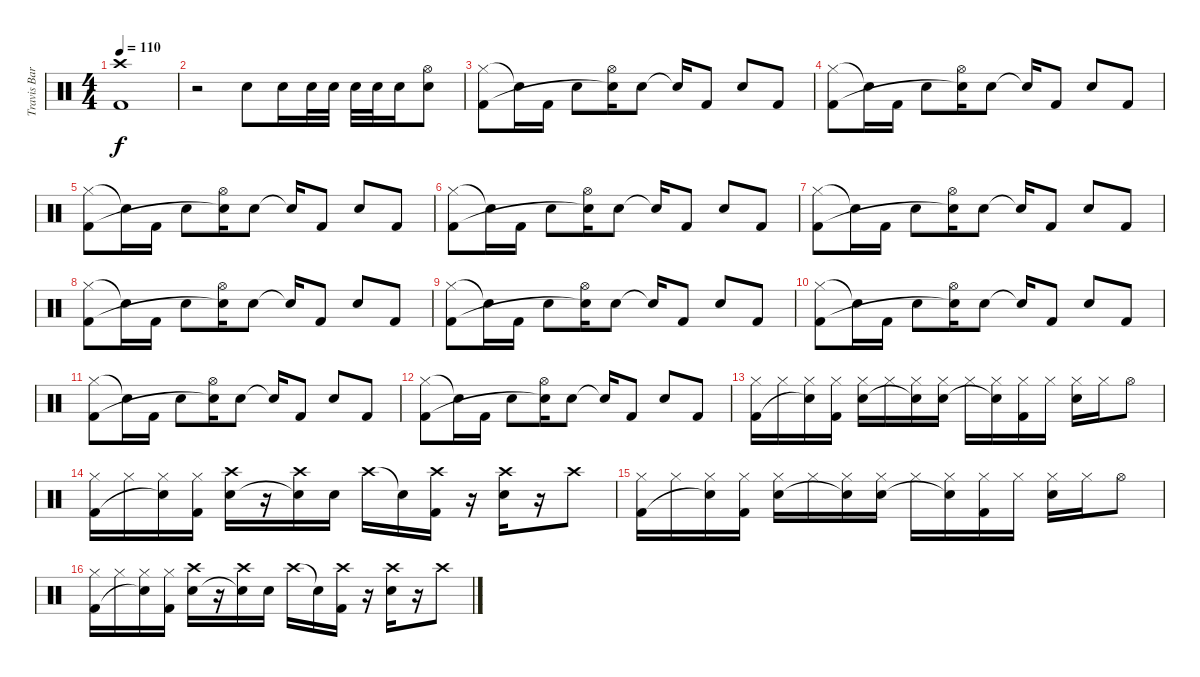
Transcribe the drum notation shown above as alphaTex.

\track ("Travis Barker (Drums)" "Travis Bar") {instrument percussion}
\staff {score}
\articulation defaults
\ts (4 4)
\tempo 110
\clef neutral
\ks c
("Crash high (hit)" "Kick (hit) 2").1{dy f} |
r.2 "Electric Snare (hit)".8 "Electric Snare (hit)".16 "Electric Snare (hit)".32 "Electric Snare (hit)".32 "Electric Snare (hit)".32 "Electric Snare (hit)".32 "Electric Snare (hit)".16 ("Hi-Hat (open)" "Electric Snare (hit)").8 |
("Hi-Hat (closed)" "Kick (hit) 2").8 "Snare (hit)"{t}.16 "Kick (hit) 2".16 "Electric Snare (hit)".8 ("Hi-Hat (open)" "Snare (hit)"{t}).16 "Electric Snare (hit)".8 "Snare (hit)"{t}.16 "Kick (hit) 2".8 "Electric Snare (hit)".8 "Kick (hit) 2".8 |
("Hi-Hat (closed)" "Kick (hit) 2").8 "Snare (hit)"{t}.16 "Kick (hit) 2".16 "Electric Snare (hit)".8 ("Hi-Hat (open)" "Snare (hit)"{t}).16 "Electric Snare (hit)".8 "Snare (hit)"{t}.16 "Kick (hit) 2".8 "Electric Snare (hit)".8 "Kick (hit) 2".8 |
("Hi-Hat (closed)" "Kick (hit) 2").8 "Snare (hit)"{t}.16 "Kick (hit) 2".16 "Electric Snare (hit)".8 ("Hi-Hat (open)" "Snare (hit)"{t}).16 "Electric Snare (hit)".8 "Snare (hit)"{t}.16 "Kick (hit) 2".8 "Electric Snare (hit)".8 "Kick (hit) 2".8 |
("Hi-Hat (closed)" "Kick (hit) 2").8 "Snare (hit)"{t}.16 "Kick (hit) 2".16 "Electric Snare (hit)".8 ("Hi-Hat (open)" "Snare (hit)"{t}).16 "Electric Snare (hit)".8 "Snare (hit)"{t}.16 "Kick (hit) 2".8 "Electric Snare (hit)".8 "Kick (hit) 2".8 |
("Hi-Hat (closed)" "Kick (hit) 2").8 "Snare (hit)"{t}.16 "Kick (hit) 2".16 "Electric Snare (hit)".8 ("Hi-Hat (open)" "Snare (hit)"{t}).16 "Electric Snare (hit)".8 "Snare (hit)"{t}.16 "Kick (hit) 2".8 "Electric Snare (hit)".8 "Kick (hit) 2".8 |
("Hi-Hat (closed)" "Kick (hit) 2").8 "Snare (hit)"{t}.16 "Kick (hit) 2".16 "Electric Snare (hit)".8 ("Hi-Hat (open)" "Snare (hit)"{t}).16 "Electric Snare (hit)".8 "Snare (hit)"{t}.16 "Kick (hit) 2".8 "Electric Snare (hit)".8 "Kick (hit) 2".8 |
("Hi-Hat (closed)" "Kick (hit) 2").8 "Snare (hit)"{t}.16 "Kick (hit) 2".16 "Electric Snare (hit)".8 ("Hi-Hat (open)" "Snare (hit)"{t}).16 "Electric Snare (hit)".8 "Snare (hit)"{t}.16 "Kick (hit) 2".8 "Electric Snare (hit)".8 "Kick (hit) 2".8 |
("Hi-Hat (closed)" "Kick (hit) 2").8 "Snare (hit)"{t}.16 "Kick (hit) 2".16 "Electric Snare (hit)".8 ("Hi-Hat (open)" "Snare (hit)"{t}).16 "Electric Snare (hit)".8 "Snare (hit)"{t}.16 "Kick (hit) 2".8 "Electric Snare (hit)".8 "Kick (hit) 2".8 |
("Hi-Hat (closed)" "Kick (hit) 2").8 "Snare (hit)"{t}.16 "Kick (hit) 2".16 "Electric Snare (hit)".8 ("Hi-Hat (open)" "Snare (hit)"{t}).16 "Electric Snare (hit)".8 "Snare (hit)"{t}.16 "Kick (hit) 2".8 "Electric Snare (hit)".8 "Kick (hit) 2".8 |
("Hi-Hat (closed)" "Kick (hit) 2").8 "Snare (hit)"{t}.16 "Kick (hit) 2".16 "Electric Snare (hit)".8 ("Hi-Hat (open)" "Snare (hit)"{t}).16 "Electric Snare (hit)".8 "Snare (hit)"{t}.16 "Kick (hit) 2".8 "Electric Snare (hit)".8 "Kick (hit) 2".8 |
("Hi-Hat (closed)" "Kick (hit) 2").16 "Hi-Hat (closed)".16 ("Hi-Hat (closed)" "Snare (hit)"{t}).16 ("Hi-Hat (closed)" "Kick (hit) 2").16 ("Hi-Hat (closed)" "Electric Snare (hit)").16 "Hi-Hat (closed)".16 ("Hi-Hat (closed)" "Snare (hit)"{t}).16 ("Hi-Hat (closed)" "Electric Snare (hit)").16 "Hi-Hat (closed)".16 ("Hi-Hat (closed)" "Snare (hit)"{t}).16 ("Hi-Hat (closed)" "Kick (hit) 2").16 "Hi-Hat (closed)".16 ("Hi-Hat (closed)" "Electric Snare (hit)").16 "Hi-Hat (closed)".16 "Hi-Hat (open)".8 |
("Hi-Hat (closed)" "Kick (hit) 2").16 "Hi-Hat (closed)".16 ("Hi-Hat (closed)" "Snare (hit)"{t}).16 ("Hi-Hat (closed)" "Kick (hit) 2").16 ("Crash high (hit)" "Electric Snare (hit)").16 r.16 ("Crash high (hit)" "Snare (hit)"{t}).16 "Electric Snare (hit)".16 "Crash high (hit)".16 "Snare (hit)"{t}.16 ("Crash high (hit)" "Kick (hit) 2").16 r.16 ("Crash high (hit)" "Electric Snare (hit)").16 r.16 "Crash high (hit)".8 |
("Hi-Hat (closed)" "Kick (hit) 2").16 "Hi-Hat (closed)".16 ("Hi-Hat (closed)" "Snare (hit)"{t}).16 ("Hi-Hat (closed)" "Kick (hit) 2").16 ("Hi-Hat (closed)" "Electric Snare (hit)").16 "Hi-Hat (closed)".16 ("Hi-Hat (closed)" "Snare (hit)"{t}).16 ("Hi-Hat (closed)" "Electric Snare (hit)").16 "Hi-Hat (closed)".16 ("Hi-Hat (closed)" "Snare (hit)"{t}).16 ("Hi-Hat (closed)" "Kick (hit) 2").16 "Hi-Hat (closed)".16 ("Hi-Hat (closed)" "Electric Snare (hit)").16 "Hi-Hat (closed)".16 "Hi-Hat (open)".8 |
("Hi-Hat (closed)" "Kick (hit) 2").16 "Hi-Hat (closed)".16 ("Hi-Hat (closed)" "Snare (hit)"{t}).16 ("Hi-Hat (closed)" "Kick (hit) 2").16 ("Crash high (hit)" "Electric Snare (hit)").16 r.16 ("Crash high (hit)" "Snare (hit)"{t}).16 "Electric Snare (hit)".16 "Crash high (hit)".16 "Snare (hit)"{t}.16 ("Crash high (hit)" "Kick (hit) 2").16 r.16 ("Crash high (hit)" "Electric Snare (hit)").16 r.16 "Crash high (hit)".8
